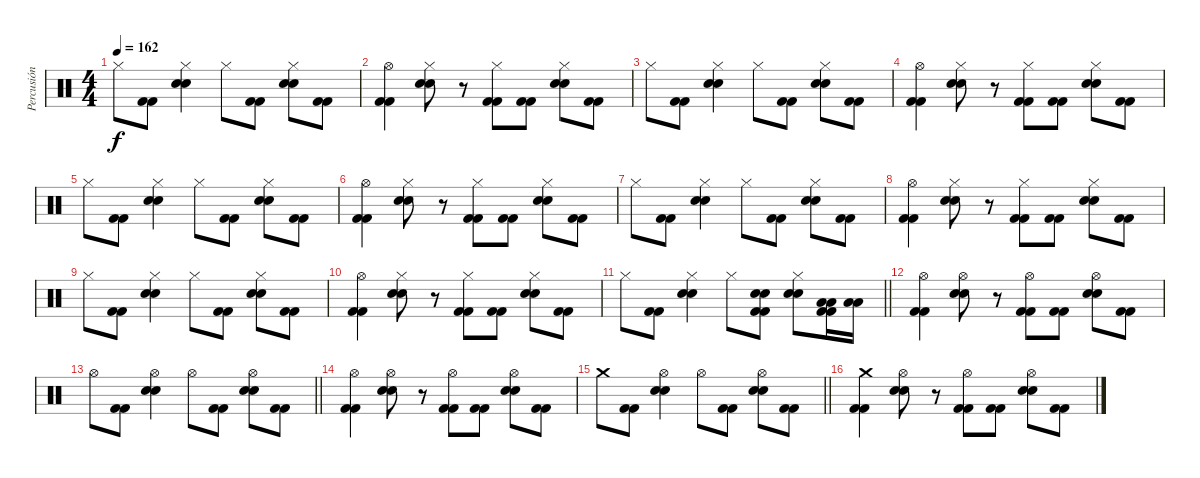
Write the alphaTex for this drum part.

\track ("Percusión" "Percusión") {instrument percussion}
\staff {score}
\articulation defaults
\ts (4 4)
\tempo 162
\clef neutral
\ks c "Hi-Hat (closed)".8{dy f}
("Kick (hit) 2" "Kick (hit) 2").8 ("Hi-Hat (closed)" "Electric Snare (hit)" "Electric Snare (hit)").4 "Hi-Hat (closed)".8 ("Kick (hit) 2" "Kick (hit) 2").8 ("Hi-Hat (closed)" "Electric Snare (hit)" "Electric Snare (hit)").8 ("Kick (hit) 2" "Kick (hit) 2").8 |
("Hi-Hat (open)" "Kick (hit) 2" "Kick (hit) 2").4 ("Hi-Hat (closed)" "Electric Snare (hit)" "Electric Snare (hit)").8 r.8 ("Hi-Hat (closed)" "Kick (hit) 2" "Kick (hit) 2").8 ("Kick (hit) 2" "Kick (hit) 2").8 ("Hi-Hat (closed)" "Electric Snare (hit)" "Electric Snare (hit)").8 ("Kick (hit) 2" "Kick (hit) 2").8 |
"Hi-Hat (closed)".8 ("Kick (hit) 2" "Kick (hit) 2").8 ("Hi-Hat (closed)" "Electric Snare (hit)" "Electric Snare (hit)").4 "Hi-Hat (closed)".8 ("Kick (hit) 2" "Kick (hit) 2").8 ("Hi-Hat (closed)" "Electric Snare (hit)" "Electric Snare (hit)").8 ("Kick (hit) 2" "Kick (hit) 2").8 |
("Hi-Hat (open)" "Kick (hit) 2" "Kick (hit) 2").4 ("Hi-Hat (closed)" "Electric Snare (hit)" "Electric Snare (hit)").8 r.8 ("Hi-Hat (closed)" "Kick (hit) 2" "Kick (hit) 2").8 ("Kick (hit) 2" "Kick (hit) 2").8 ("Hi-Hat (closed)" "Electric Snare (hit)" "Electric Snare (hit)").8 ("Kick (hit) 2" "Kick (hit) 2").8 |
"Hi-Hat (closed)".8 ("Kick (hit) 2" "Kick (hit) 2").8 ("Hi-Hat (closed)" "Electric Snare (hit)" "Electric Snare (hit)").4 "Hi-Hat (closed)".8 ("Kick (hit) 2" "Kick (hit) 2").8 ("Hi-Hat (closed)" "Electric Snare (hit)" "Electric Snare (hit)").8 ("Kick (hit) 2" "Kick (hit) 2").8 |
("Hi-Hat (open)" "Kick (hit) 2" "Kick (hit) 2").4 ("Hi-Hat (closed)" "Electric Snare (hit)" "Electric Snare (hit)").8 r.8 ("Hi-Hat (closed)" "Kick (hit) 2" "Kick (hit) 2").8 ("Kick (hit) 2" "Kick (hit) 2").8 ("Hi-Hat (closed)" "Electric Snare (hit)" "Electric Snare (hit)").8 ("Kick (hit) 2" "Kick (hit) 2").8 |
"Hi-Hat (closed)".8 ("Kick (hit) 2" "Kick (hit) 2").8 ("Hi-Hat (closed)" "Electric Snare (hit)" "Electric Snare (hit)").4 "Hi-Hat (closed)".8 ("Kick (hit) 2" "Kick (hit) 2").8 ("Hi-Hat (closed)" "Electric Snare (hit)" "Electric Snare (hit)").8 ("Kick (hit) 2" "Kick (hit) 2").8 |
("Hi-Hat (open)" "Kick (hit) 2" "Kick (hit) 2").4 ("Hi-Hat (closed)" "Electric Snare (hit)" "Electric Snare (hit)").8 r.8 ("Hi-Hat (closed)" "Kick (hit) 2" "Kick (hit) 2").8 ("Kick (hit) 2" "Kick (hit) 2").8 ("Hi-Hat (closed)" "Electric Snare (hit)" "Electric Snare (hit)").8 ("Kick (hit) 2" "Kick (hit) 2").8 |
"Hi-Hat (closed)".8 ("Kick (hit) 2" "Kick (hit) 2").8 ("Hi-Hat (closed)" "Electric Snare (hit)" "Electric Snare (hit)").4 "Hi-Hat (closed)".8 ("Kick (hit) 2" "Kick (hit) 2").8 ("Hi-Hat (closed)" "Electric Snare (hit)" "Electric Snare (hit)").8 ("Kick (hit) 2" "Kick (hit) 2").8 |
("Hi-Hat (open)" "Kick (hit) 2" "Kick (hit) 2").4 ("Hi-Hat (closed)" "Electric Snare (hit)" "Electric Snare (hit)").8 r.8 ("Hi-Hat (closed)" "Kick (hit) 2" "Kick (hit) 2").8 ("Kick (hit) 2" "Kick (hit) 2").8 ("Hi-Hat (closed)" "Electric Snare (hit)" "Electric Snare (hit)").8 ("Kick (hit) 2" "Kick (hit) 2").8 |
\barLineRight lightlight "Hi-Hat (closed)".8
("Kick (hit) 2" "Kick (hit) 2").8 ("Hi-Hat (closed)" "Electric Snare (hit)" "Electric Snare (hit)").4 "Hi-Hat (closed)".8 ("Electric Snare (hit)" "Electric Snare (hit)" "Kick (hit) 2" "Kick (hit) 2").8 ("Hi-Hat (closed)" "Electric Snare (hit)" "Electric Snare (hit)").8 ("Low Tom (hit)" "Low Tom (hit)" "Kick (hit) 2" "Kick (hit) 2").16 ("Low Tom (hit)" "Low Tom (hit)").16 |
("Hi-Hat (open)" "Kick (hit) 2" "Kick (hit) 2").4 ("Hi-Hat (open)" "Electric Snare (hit)" "Electric Snare (hit)").8 r.8 ("Hi-Hat (open)" "Kick (hit) 2" "Kick (hit) 2").8 ("Kick (hit) 2" "Kick (hit) 2").8 ("Hi-Hat (open)" "Electric Snare (hit)" "Electric Snare (hit)").8 ("Kick (hit) 2" "Kick (hit) 2").8 |
\barLineRight lightlight "Hi-Hat (open)".8
("Kick (hit) 2" "Kick (hit) 2").8 ("Hi-Hat (open)" "Electric Snare (hit)" "Electric Snare (hit)").4 "Hi-Hat (open)".8 ("Kick (hit) 2" "Kick (hit) 2").8 ("Hi-Hat (open)" "Electric Snare (hit)" "Electric Snare (hit)").8 ("Kick (hit) 2" "Kick (hit) 2").8 |
("Hi-Hat (open)" "Kick (hit) 2" "Kick (hit) 2").4 ("Hi-Hat (open)" "Electric Snare (hit)" "Electric Snare (hit)").8 r.8 ("Hi-Hat (open)" "Kick (hit) 2" "Kick (hit) 2").8 ("Kick (hit) 2" "Kick (hit) 2").8 ("Hi-Hat (open)" "Electric Snare (hit)" "Electric Snare (hit)").8 ("Kick (hit) 2" "Kick (hit) 2").8 |
\barLineRight lightlight "Crash medium (hit)".8
("Kick (hit) 2" "Kick (hit) 2").8 ("Hi-Hat (open)" "Electric Snare (hit)" "Electric Snare (hit)").4 "Hi-Hat (open)".8 ("Kick (hit) 2" "Kick (hit) 2").8 ("Hi-Hat (open)" "Electric Snare (hit)" "Electric Snare (hit)").8 ("Kick (hit) 2" "Kick (hit) 2").8 |
("Crash medium (hit)" "Kick (hit) 2" "Kick (hit) 2").4 ("Hi-Hat (open)" "Electric Snare (hit)" "Electric Snare (hit)").8 r.8 ("Hi-Hat (open)" "Kick (hit) 2" "Kick (hit) 2").8 ("Kick (hit) 2" "Kick (hit) 2").8 ("Hi-Hat (open)" "Electric Snare (hit)" "Electric Snare (hit)").8 ("Kick (hit) 2" "Kick (hit) 2").8
